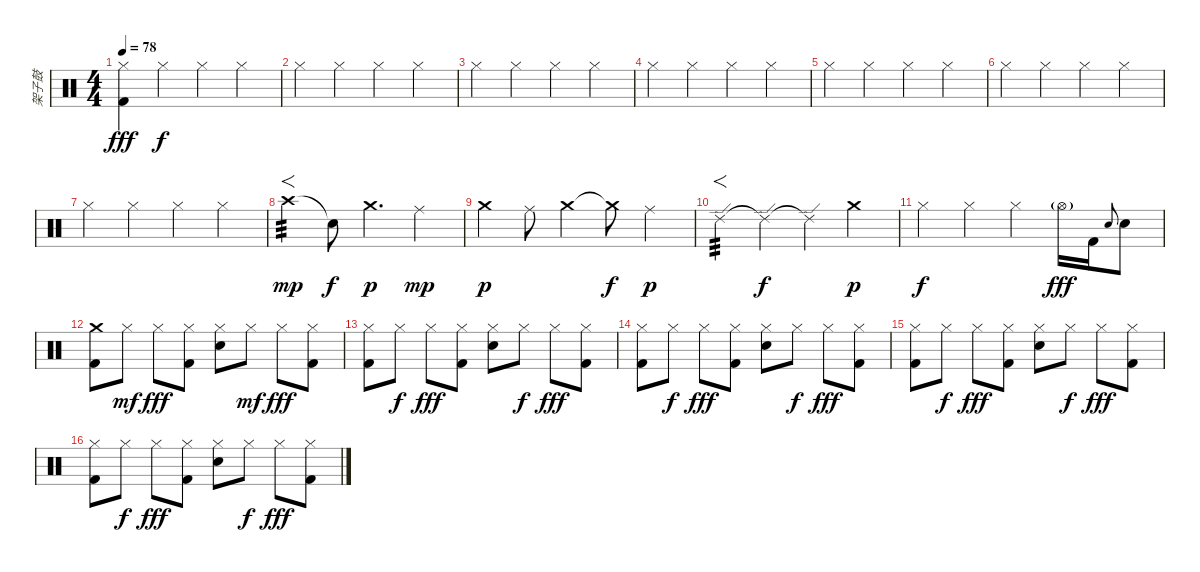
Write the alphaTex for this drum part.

\track ("架子鼓" "架子鼓") {instrument percussion}
\staff {score}
\articulation defaults
\ts (4 4)
\tempo 78
\clef neutral
\ks c
("Hi-Hat (closed)" "Kick (hit) 2").4{dy fff} "Hi-Hat (closed)".4{dy f} "Hi-Hat (closed)".4 "Hi-Hat (closed)".4 |
"Hi-Hat (closed)".4 "Hi-Hat (closed)".4 "Hi-Hat (closed)".4 "Hi-Hat (closed)".4 |
"Hi-Hat (closed)".4 "Hi-Hat (closed)".4 "Hi-Hat (closed)".4 "Hi-Hat (closed)".4 |
"Hi-Hat (closed)".4 "Hi-Hat (closed)".4 "Hi-Hat (closed)".4 "Hi-Hat (closed)".4 |
"Hi-Hat (closed)".4 "Hi-Hat (closed)".4 "Hi-Hat (closed)".4 "Hi-Hat (closed)".4 |
"Hi-Hat (closed)".4 "Hi-Hat (closed)".4 "Hi-Hat (closed)".4 "Hi-Hat (closed)".4 |
"Hi-Hat (closed)".4 "Hi-Hat (closed)".4 "Hi-Hat (closed)".4 "Hi-Hat (closed)".4 |
"Crash high (hit)".4{f tp 3 dy mp} "Snare (hit)"{t}.8{dy f} "Crash medium (hit)".4{d dy p} "Ride (middle)".4{dy mp} |
"Crash medium (hit)".4{dy p} "Ride (middle)".8 "Crash medium (hit)".4 "Crash medium (hit)"{t}.8{dy f} "Ride (middle)".4{dy p} |
"Ride (edge) 2".4{f tp 3} "Ride (edge) 2"{t}.4{dy f} "Ride (edge) 2"{t}.4 "Crash medium (hit)".4{dy p} |
"Hi-Hat (closed)".4{dy f} "Hi-Hat (closed)".4 "Hi-Hat (closed)".4 "Hi-Hat (open)"{g}.16{dy fff} "Kick (hit) 2".16 "Electric Snare (hit)".8{gr onbeat} "Electric Snare (hit)".8 |
("Crash medium (hit)" "Kick (hit) 2").8 "Hi-Hat (closed)".8{dy mf} "Hi-Hat (closed)".8{dy fff} ("Hi-Hat (closed)" "Kick (hit) 2").8 ("Hi-Hat (closed)" "Electric Snare (hit)").8 "Hi-Hat (closed)".8{dy mf} "Hi-Hat (closed)".8{dy fff} ("Hi-Hat (closed)" "Kick (hit) 2").8 |
("Hi-Hat (closed)" "Kick (hit) 2").8 "Hi-Hat (closed)".8{dy f} "Hi-Hat (closed)".8{dy fff} ("Hi-Hat (closed)" "Kick (hit) 2").8 ("Hi-Hat (closed)" "Electric Snare (hit)").8 "Hi-Hat (closed)".8{dy f} "Hi-Hat (closed)".8{dy fff} ("Hi-Hat (closed)" "Kick (hit) 2").8 |
("Hi-Hat (closed)" "Kick (hit) 2").8 "Hi-Hat (closed)".8{dy f} "Hi-Hat (closed)".8{dy fff} ("Hi-Hat (closed)" "Kick (hit) 2").8 ("Hi-Hat (closed)" "Electric Snare (hit)").8 "Hi-Hat (closed)".8{dy f} "Hi-Hat (closed)".8{dy fff} ("Hi-Hat (closed)" "Kick (hit) 2").8 |
("Hi-Hat (closed)" "Kick (hit) 2").8 "Hi-Hat (closed)".8{dy f} "Hi-Hat (closed)".8{dy fff} ("Hi-Hat (closed)" "Kick (hit) 2").8 ("Hi-Hat (closed)" "Electric Snare (hit)").8 "Hi-Hat (closed)".8{dy f} "Hi-Hat (closed)".8{dy fff} ("Hi-Hat (closed)" "Kick (hit) 2").8 |
("Hi-Hat (closed)" "Kick (hit) 2").8 "Hi-Hat (closed)".8{dy f} "Hi-Hat (closed)".8{dy fff} ("Hi-Hat (closed)" "Kick (hit) 2").8 ("Hi-Hat (closed)" "Electric Snare (hit)").8 "Hi-Hat (closed)".8{dy f} "Hi-Hat (closed)".8{dy fff} ("Hi-Hat (closed)" "Kick (hit) 2").8
